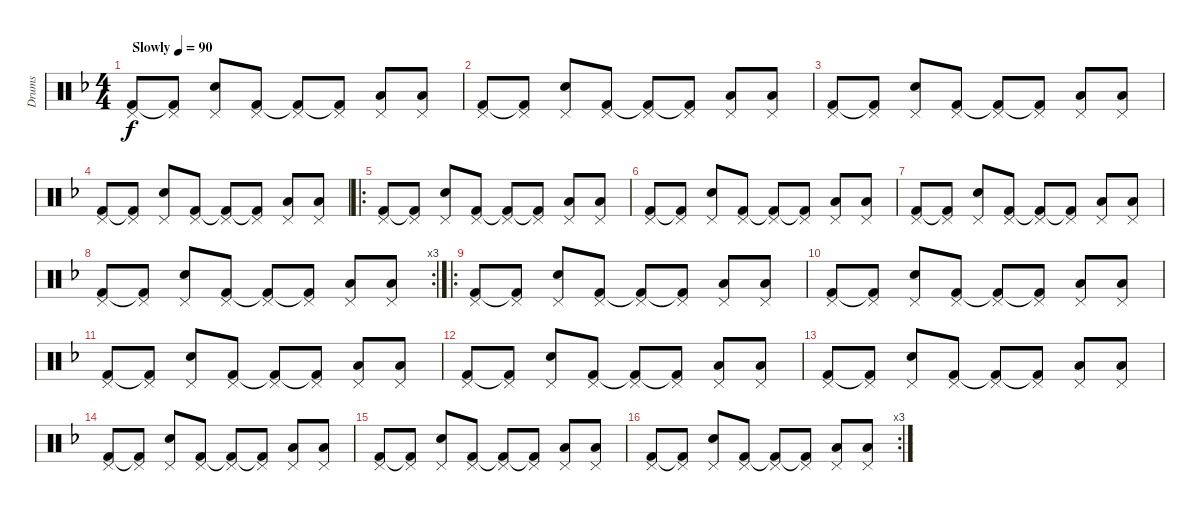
\track ("Drums" "Drums") {instrument percussion}
\staff {score}
\articulation defaults
\ts (4 4)
\tempo (90 "Slowly")
\clef neutral
\ks dminor
("Pedal Hi-Hat (hit)" "Kick (hit) 2").8{dy f} ("Pedal Hi-Hat (hit)" "Kick (hit) 2"{t}).8 ("Pedal Hi-Hat (hit)" "Snare (hit) 2").8 ("Pedal Hi-Hat (hit)" "Kick (hit) 2").8 ("Pedal Hi-Hat (hit)" "Kick (hit) 2"{t}).8 ("Pedal Hi-Hat (hit)" "Kick (hit) 2"{t}).8 ("Pedal Hi-Hat (hit)" "Low Tom (hit)").8 ("Pedal Hi-Hat (hit)" "Low Tom (hit)").8 |
("Pedal Hi-Hat (hit)" "Kick (hit) 2").8 ("Pedal Hi-Hat (hit)" "Kick (hit) 2"{t}).8 ("Pedal Hi-Hat (hit)" "Snare (hit) 2").8 ("Pedal Hi-Hat (hit)" "Kick (hit) 2").8 ("Pedal Hi-Hat (hit)" "Kick (hit) 2"{t}).8 ("Pedal Hi-Hat (hit)" "Kick (hit) 2"{t}).8 ("Pedal Hi-Hat (hit)" "Low Tom (hit)").8 ("Pedal Hi-Hat (hit)" "Low Tom (hit)").8 |
("Pedal Hi-Hat (hit)" "Kick (hit) 2").8 ("Pedal Hi-Hat (hit)" "Kick (hit) 2"{t}).8 ("Pedal Hi-Hat (hit)" "Snare (hit) 2").8 ("Pedal Hi-Hat (hit)" "Kick (hit) 2").8 ("Pedal Hi-Hat (hit)" "Kick (hit) 2"{t}).8 ("Pedal Hi-Hat (hit)" "Kick (hit) 2"{t}).8 ("Pedal Hi-Hat (hit)" "Low Tom (hit)").8 ("Pedal Hi-Hat (hit)" "Low Tom (hit)").8 |
("Pedal Hi-Hat (hit)" "Kick (hit) 2").8 ("Pedal Hi-Hat (hit)" "Kick (hit) 2"{t}).8 ("Pedal Hi-Hat (hit)" "Snare (hit) 2").8 ("Pedal Hi-Hat (hit)" "Kick (hit) 2").8 ("Pedal Hi-Hat (hit)" "Kick (hit) 2"{t}).8 ("Pedal Hi-Hat (hit)" "Kick (hit) 2"{t}).8 ("Pedal Hi-Hat (hit)" "Low Tom (hit)").8 ("Pedal Hi-Hat (hit)" "Low Tom (hit)").8 |
\ro
("Pedal Hi-Hat (hit)" "Kick (hit) 2").8 ("Pedal Hi-Hat (hit)" "Kick (hit) 2"{t}).8 ("Pedal Hi-Hat (hit)" "Snare (hit) 2").8 ("Pedal Hi-Hat (hit)" "Kick (hit) 2").8 ("Pedal Hi-Hat (hit)" "Kick (hit) 2"{t}).8 ("Pedal Hi-Hat (hit)" "Kick (hit) 2"{t}).8 ("Pedal Hi-Hat (hit)" "Low Tom (hit)").8 ("Pedal Hi-Hat (hit)" "Low Tom (hit)").8 |
("Pedal Hi-Hat (hit)" "Kick (hit) 2").8 ("Pedal Hi-Hat (hit)" "Kick (hit) 2"{t}).8 ("Pedal Hi-Hat (hit)" "Snare (hit) 2").8 ("Pedal Hi-Hat (hit)" "Kick (hit) 2").8 ("Pedal Hi-Hat (hit)" "Kick (hit) 2"{t}).8 ("Pedal Hi-Hat (hit)" "Kick (hit) 2"{t}).8 ("Pedal Hi-Hat (hit)" "Low Tom (hit)").8 ("Pedal Hi-Hat (hit)" "Low Tom (hit)").8 |
("Pedal Hi-Hat (hit)" "Kick (hit) 2").8 ("Pedal Hi-Hat (hit)" "Kick (hit) 2"{t}).8 ("Pedal Hi-Hat (hit)" "Snare (hit) 2").8 ("Pedal Hi-Hat (hit)" "Kick (hit) 2").8 ("Pedal Hi-Hat (hit)" "Kick (hit) 2"{t}).8 ("Pedal Hi-Hat (hit)" "Kick (hit) 2"{t}).8 ("Pedal Hi-Hat (hit)" "Low Tom (hit)").8 ("Pedal Hi-Hat (hit)" "Low Tom (hit)").8 |
\rc 3
("Pedal Hi-Hat (hit)" "Kick (hit) 2").8 ("Pedal Hi-Hat (hit)" "Kick (hit) 2"{t}).8 ("Pedal Hi-Hat (hit)" "Snare (hit) 2").8 ("Pedal Hi-Hat (hit)" "Kick (hit) 2").8 ("Pedal Hi-Hat (hit)" "Kick (hit) 2"{t}).8 ("Pedal Hi-Hat (hit)" "Kick (hit) 2"{t}).8 ("Pedal Hi-Hat (hit)" "Low Tom (hit)").8 ("Pedal Hi-Hat (hit)" "Low Tom (hit)").8 |
\ro
("Pedal Hi-Hat (hit)" "Kick (hit) 2").8 ("Pedal Hi-Hat (hit)" "Kick (hit) 2"{t}).8 ("Pedal Hi-Hat (hit)" "Snare (hit) 2").8 ("Pedal Hi-Hat (hit)" "Kick (hit) 2").8 ("Pedal Hi-Hat (hit)" "Kick (hit) 2"{t}).8 ("Pedal Hi-Hat (hit)" "Kick (hit) 2"{t}).8 ("Pedal Hi-Hat (hit)" "Low Tom (hit)").8 ("Pedal Hi-Hat (hit)" "Low Tom (hit)").8 |
("Pedal Hi-Hat (hit)" "Kick (hit) 2").8 ("Pedal Hi-Hat (hit)" "Kick (hit) 2"{t}).8 ("Pedal Hi-Hat (hit)" "Snare (hit) 2").8 ("Pedal Hi-Hat (hit)" "Kick (hit) 2").8 ("Pedal Hi-Hat (hit)" "Kick (hit) 2"{t}).8 ("Pedal Hi-Hat (hit)" "Kick (hit) 2"{t}).8 ("Pedal Hi-Hat (hit)" "Low Tom (hit)").8 ("Pedal Hi-Hat (hit)" "Low Tom (hit)").8 |
("Pedal Hi-Hat (hit)" "Kick (hit) 2").8 ("Pedal Hi-Hat (hit)" "Kick (hit) 2"{t}).8 ("Pedal Hi-Hat (hit)" "Snare (hit) 2").8 ("Pedal Hi-Hat (hit)" "Kick (hit) 2").8 ("Pedal Hi-Hat (hit)" "Kick (hit) 2"{t}).8 ("Pedal Hi-Hat (hit)" "Kick (hit) 2"{t}).8 ("Pedal Hi-Hat (hit)" "Low Tom (hit)").8 ("Pedal Hi-Hat (hit)" "Low Tom (hit)").8 |
("Pedal Hi-Hat (hit)" "Kick (hit) 2").8 ("Pedal Hi-Hat (hit)" "Kick (hit) 2"{t}).8 ("Pedal Hi-Hat (hit)" "Snare (hit) 2").8 ("Pedal Hi-Hat (hit)" "Kick (hit) 2").8 ("Pedal Hi-Hat (hit)" "Kick (hit) 2"{t}).8 ("Pedal Hi-Hat (hit)" "Kick (hit) 2"{t}).8 ("Pedal Hi-Hat (hit)" "Low Tom (hit)").8 ("Pedal Hi-Hat (hit)" "Low Tom (hit)").8 |
("Pedal Hi-Hat (hit)" "Kick (hit) 2").8 ("Pedal Hi-Hat (hit)" "Kick (hit) 2"{t}).8 ("Pedal Hi-Hat (hit)" "Snare (hit) 2").8 ("Pedal Hi-Hat (hit)" "Kick (hit) 2").8 ("Pedal Hi-Hat (hit)" "Kick (hit) 2"{t}).8 ("Pedal Hi-Hat (hit)" "Kick (hit) 2"{t}).8 ("Pedal Hi-Hat (hit)" "Low Tom (hit)").8 ("Pedal Hi-Hat (hit)" "Low Tom (hit)").8 |
("Pedal Hi-Hat (hit)" "Kick (hit) 2").8 ("Pedal Hi-Hat (hit)" "Kick (hit) 2"{t}).8 ("Pedal Hi-Hat (hit)" "Snare (hit) 2").8 ("Pedal Hi-Hat (hit)" "Kick (hit) 2").8 ("Pedal Hi-Hat (hit)" "Kick (hit) 2"{t}).8 ("Pedal Hi-Hat (hit)" "Kick (hit) 2"{t}).8 ("Pedal Hi-Hat (hit)" "Low Tom (hit)").8 ("Pedal Hi-Hat (hit)" "Low Tom (hit)").8 |
("Pedal Hi-Hat (hit)" "Kick (hit) 2").8 ("Pedal Hi-Hat (hit)" "Kick (hit) 2"{t}).8 ("Pedal Hi-Hat (hit)" "Snare (hit) 2").8 ("Pedal Hi-Hat (hit)" "Kick (hit) 2").8 ("Pedal Hi-Hat (hit)" "Kick (hit) 2"{t}).8 ("Pedal Hi-Hat (hit)" "Kick (hit) 2"{t}).8 ("Pedal Hi-Hat (hit)" "Low Tom (hit)").8 ("Pedal Hi-Hat (hit)" "Low Tom (hit)").8 |
\rc 3
("Pedal Hi-Hat (hit)" "Kick (hit) 2").8 ("Pedal Hi-Hat (hit)" "Kick (hit) 2"{t}).8 ("Pedal Hi-Hat (hit)" "Snare (hit) 2").8 ("Pedal Hi-Hat (hit)" "Kick (hit) 2").8 ("Pedal Hi-Hat (hit)" "Kick (hit) 2"{t}).8 ("Pedal Hi-Hat (hit)" "Kick (hit) 2"{t}).8 ("Pedal Hi-Hat (hit)" "Low Tom (hit)").8 ("Pedal Hi-Hat (hit)" "Low Tom (hit)").8
